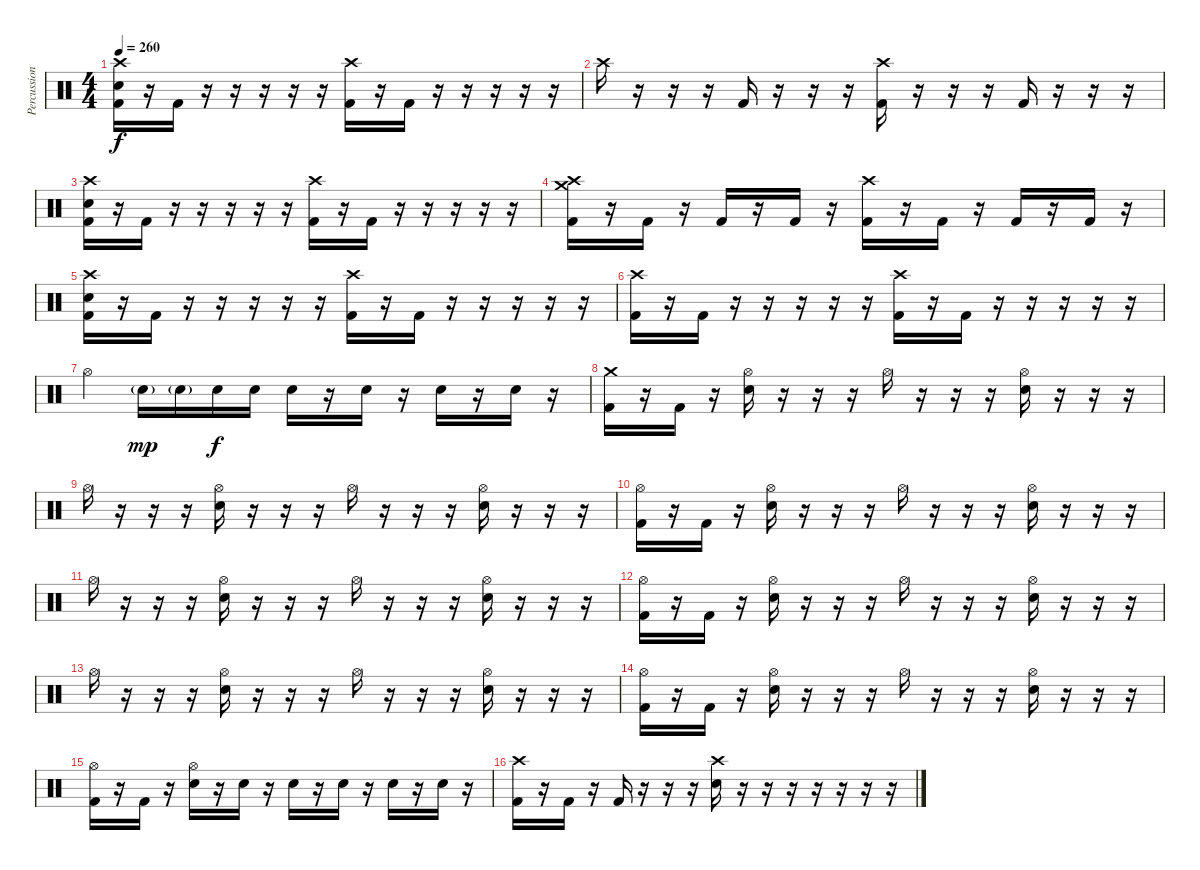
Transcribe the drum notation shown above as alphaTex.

\track ("Percussion" "Percussion") {instrument percussion}
\staff {score}
\articulation defaults
\ts (4 4)
\tempo 260
\clef neutral
\ks c
("Kick (hit) 2" "Snare (hit) 2" "Crash high (hit)").16{dy f} r.16 "Kick (hit) 2".16 r.16 r.16 r.16 r.16 r.16 ("Kick (hit) 2" "Crash high (hit)").16 r.16 "Kick (hit) 2".16 r.16 r.16 r.16 r.16 r.16 |
"Crash high (hit)".16 r.16 r.16 r.16 "Kick (hit) 2".16 r.16 r.16 r.16 ("Kick (hit) 2" "Crash high (hit)").16 r.16 r.16 r.16 "Kick (hit) 2".16 r.16 r.16 r.16 |
("Kick (hit) 2" "Snare (hit) 2" "Crash high (hit)").16 r.16 "Kick (hit) 2".16 r.16 r.16 r.16 r.16 r.16 ("Kick (hit) 2" "Crash high (hit)").16 r.16 "Kick (hit) 2".16 r.16 r.16 r.16 r.16 r.16 |
("Kick (hit) 2" "Crash medium (hit)" "Crash high (hit)").16 r.16 "Kick (hit) 2".16 r.16 "Kick (hit) 2".16 r.16 "Kick (hit) 2".16 r.16 ("Kick (hit) 2" "Crash high (hit)").16 r.16 "Kick (hit) 2".16 r.16 "Kick (hit) 2".16 r.16 "Kick (hit) 2".16 r.16 |
("Kick (hit) 2" "Snare (hit) 2" "Crash high (hit)").16 r.16 "Kick (hit) 2".16 r.16 r.16 r.16 r.16 r.16 ("Kick (hit) 2" "Crash high (hit)").16 r.16 "Kick (hit) 2".16 r.16 r.16 r.16 r.16 r.16 |
("Kick (hit) 2" "Crash high (hit)").16 r.16 "Kick (hit) 2".16 r.16 r.16 r.16 r.16 r.16 ("Kick (hit) 2" "Crash high (hit)").16 r.16 "Kick (hit) 2".16 r.16 r.16 r.16 r.16 r.16 |
"Hi-Hat (open)".4 "Snare (hit) 2"{g}.16{dy mp} "Snare (hit) 2"{g}.16 "Snare (hit) 2".16{dy f} "Snare (hit) 2".16 "Snare (hit) 2".16 r.16 "Snare (hit) 2".16 r.16 "Snare (hit) 2".16 r.16 "Snare (hit) 2".16 r.16 |
("Kick (hit) 2" "Crash medium (hit)").16 r.16 "Kick (hit) 2".16 r.16 ("Snare (hit) 2" "Hi-Hat (open)").16 r.16 r.16 r.16 "Hi-Hat (open)".16 r.16 r.16 r.16 ("Snare (hit) 2" "Hi-Hat (open)").16 r.16 r.16 r.16 |
"Hi-Hat (open)".16 r.16 r.16 r.16 ("Snare (hit) 2" "Hi-Hat (open)").16 r.16 r.16 r.16 "Hi-Hat (open)".16 r.16 r.16 r.16 ("Snare (hit) 2" "Hi-Hat (open)").16 r.16 r.16 r.16 |
("Kick (hit) 2" "Hi-Hat (open)").16 r.16 "Kick (hit) 2".16 r.16 ("Snare (hit) 2" "Hi-Hat (open)").16 r.16 r.16 r.16 "Hi-Hat (open)".16 r.16 r.16 r.16 ("Snare (hit) 2" "Hi-Hat (open)").16 r.16 r.16 r.16 |
"Hi-Hat (open)".16 r.16 r.16 r.16 ("Snare (hit) 2" "Hi-Hat (open)").16 r.16 r.16 r.16 "Hi-Hat (open)".16 r.16 r.16 r.16 ("Snare (hit) 2" "Hi-Hat (open)").16 r.16 r.16 r.16 |
("Kick (hit) 2" "Hi-Hat (open)").16 r.16 "Kick (hit) 2".16 r.16 ("Snare (hit) 2" "Hi-Hat (open)").16 r.16 r.16 r.16 "Hi-Hat (open)".16 r.16 r.16 r.16 ("Snare (hit) 2" "Hi-Hat (open)").16 r.16 r.16 r.16 |
"Hi-Hat (open)".16 r.16 r.16 r.16 ("Snare (hit) 2" "Hi-Hat (open)").16 r.16 r.16 r.16 "Hi-Hat (open)".16 r.16 r.16 r.16 ("Snare (hit) 2" "Hi-Hat (open)").16 r.16 r.16 r.16 |
("Kick (hit) 2" "Hi-Hat (open)").16 r.16 "Kick (hit) 2".16 r.16 ("Snare (hit) 2" "Hi-Hat (open)").16 r.16 r.16 r.16 "Hi-Hat (open)".16 r.16 r.16 r.16 ("Snare (hit) 2" "Hi-Hat (open)").16 r.16 r.16 r.16 |
("Kick (hit) 2" "Hi-Hat (open)").16 r.16 "Kick (hit) 2".16 r.16 ("Snare (hit) 2" "Hi-Hat (open)").16 r.16 "Snare (hit) 2".16 r.16 "Snare (hit) 2".16 r.16 "Snare (hit) 2".16 r.16 "Snare (hit) 2".16 r.16 "Snare (hit) 2".16 r.16 |
("Kick (hit) 2" "Crash high (hit)").16 r.16 "Kick (hit) 2".16 r.16 "Kick (hit) 2".16 r.16 r.16 r.16 ("Snare (hit) 2" "Crash high (hit)").16 r.16 r.16 r.16 r.16 r.16 r.16 r.16
